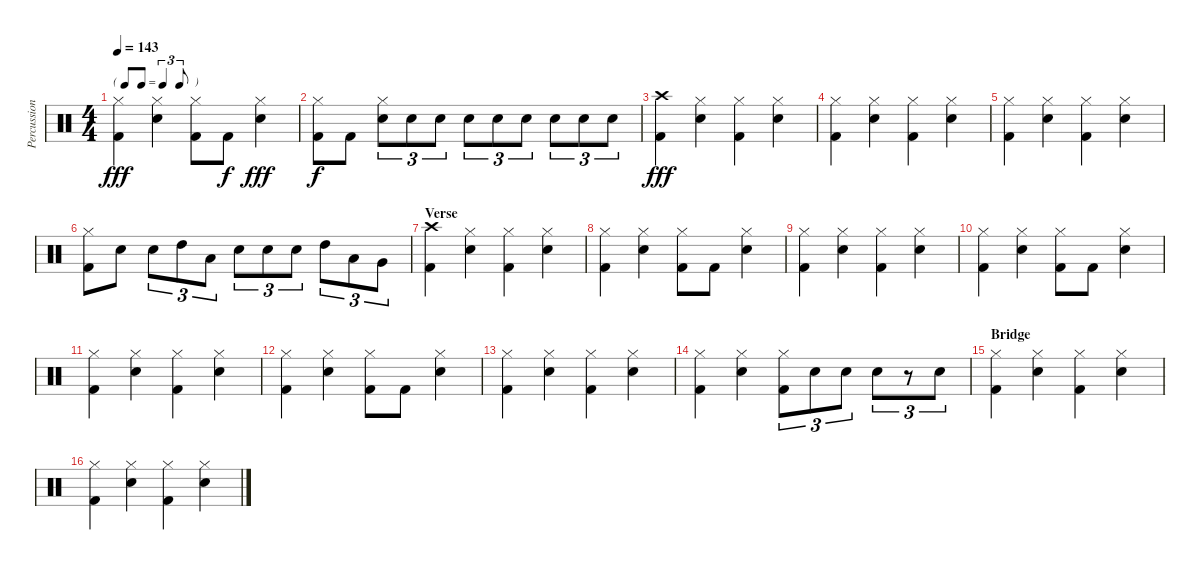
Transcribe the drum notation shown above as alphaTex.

\track ("Percussion" "Percussion") {instrument percussion}
\staff {score}
\articulation defaults
\ts (4 4)
\tf triplet8th
\tempo 143
\clef neutral
\ks c
("Hi-Hat (closed)" "Kick (hit) 2").4{dy fff} ("Hi-Hat (closed)" "Snare (hit) 2").4 ("Hi-Hat (closed)" "Kick (hit) 2").8 "Kick (hit) 2".8{dy f} ("Hi-Hat (closed)" "Snare (hit) 2").4{dy fff} |
("Hi-Hat (closed)" "Kick (hit) 2").8{dy f} "Kick (hit) 2".8 ("Hi-Hat (closed)" "Snare (hit) 2").8{tu (3 2)} "Snare (hit) 2".8{tu (3 2)} "Snare (hit) 2".8{tu (3 2)} "Snare (hit) 2".8{tu (3 2)} "Snare (hit) 2".8{tu (3 2)} "Snare (hit) 2".8{tu (3 2)} "Snare (hit) 2".8{tu (3 2)} "Snare (hit) 2".8{tu (3 2)} "Snare (hit) 2".8{tu (3 2)} |
("Crash high (hit)" "Kick (hit) 2").4{dy fff} ("Hi-Hat (closed)" "Snare (hit) 2").4 ("Hi-Hat (closed)" "Kick (hit) 2").4 ("Hi-Hat (closed)" "Snare (hit) 2").4 |
("Hi-Hat (closed)" "Kick (hit) 2").4 ("Hi-Hat (closed)" "Snare (hit) 2").4 ("Hi-Hat (closed)" "Kick (hit) 2").4 ("Hi-Hat (closed)" "Snare (hit) 2").4 |
("Hi-Hat (closed)" "Kick (hit) 2").4 ("Hi-Hat (closed)" "Snare (hit) 2").4 ("Hi-Hat (closed)" "Kick (hit) 2").4 ("Hi-Hat (closed)" "Snare (hit) 2").4 |
("Hi-Hat (closed)" "Kick (hit) 2").8 "Snare (hit) 2".8 "Snare (hit) 2".8{tu (3 2)} "High Tom (hit)".8{tu (3 2)} "Low Tom (hit)".8{tu (3 2)} "Snare (hit) 2".8{tu (3 2)} "Snare (hit) 2".8{tu (3 2)} "Snare (hit) 2".8{tu (3 2)} "High Tom (hit)".8{tu (3 2)} "Low Tom (hit)".8{tu (3 2)} "Very Low Tom (hit)".8{tu (3 2)} |
\section ("" "Verse")
("Crash high (hit)" "Kick (hit) 2").4 ("Hi-Hat (closed)" "Snare (hit) 2").4 ("Hi-Hat (closed)" "Kick (hit) 2").4 ("Hi-Hat (closed)" "Snare (hit) 2").4 |
("Hi-Hat (closed)" "Kick (hit) 2").4 ("Hi-Hat (closed)" "Snare (hit) 2").4 ("Hi-Hat (closed)" "Kick (hit) 2").8 "Kick (hit) 2".8 ("Hi-Hat (closed)" "Snare (hit) 2").4 |
("Hi-Hat (closed)" "Kick (hit) 2").4 ("Hi-Hat (closed)" "Snare (hit) 2").4 ("Hi-Hat (closed)" "Kick (hit) 2").4 ("Hi-Hat (closed)" "Snare (hit) 2").4 |
("Hi-Hat (closed)" "Kick (hit) 2").4 ("Hi-Hat (closed)" "Snare (hit) 2").4 ("Hi-Hat (closed)" "Kick (hit) 2").8 "Kick (hit) 2".8 ("Hi-Hat (closed)" "Snare (hit) 2").4 |
("Hi-Hat (closed)" "Kick (hit) 2").4 ("Hi-Hat (closed)" "Snare (hit) 2").4 ("Hi-Hat (closed)" "Kick (hit) 2").4 ("Hi-Hat (closed)" "Snare (hit) 2").4 |
("Hi-Hat (closed)" "Kick (hit) 2").4 ("Hi-Hat (closed)" "Snare (hit) 2").4 ("Hi-Hat (closed)" "Kick (hit) 2").8 "Kick (hit) 2".8 ("Hi-Hat (closed)" "Snare (hit) 2").4 |
("Hi-Hat (closed)" "Kick (hit) 2").4 ("Hi-Hat (closed)" "Snare (hit) 2").4 ("Hi-Hat (closed)" "Kick (hit) 2").4 ("Hi-Hat (closed)" "Snare (hit) 2").4 |
("Hi-Hat (closed)" "Kick (hit) 2").4 ("Hi-Hat (closed)" "Snare (hit) 2").4 ("Hi-Hat (closed)" "Kick (hit) 2").8{tu (3 2)} "Snare (hit) 2".8{tu (3 2)} "Snare (hit) 2".8{tu (3 2)} "Snare (hit) 2".8{tu (3 2)} r.8{tu (3 2)} "Snare (hit) 2".8{tu (3 2)} |
\section ("" "Bridge")
("Hi-Hat (closed)" "Kick (hit) 2").4 ("Hi-Hat (closed)" "Snare (hit) 2").4 ("Hi-Hat (closed)" "Kick (hit) 2").4 ("Hi-Hat (closed)" "Snare (hit) 2").4 |
("Hi-Hat (closed)" "Kick (hit) 2").4 ("Hi-Hat (closed)" "Snare (hit) 2").4 ("Hi-Hat (closed)" "Kick (hit) 2").4 ("Hi-Hat (closed)" "Snare (hit) 2").4
